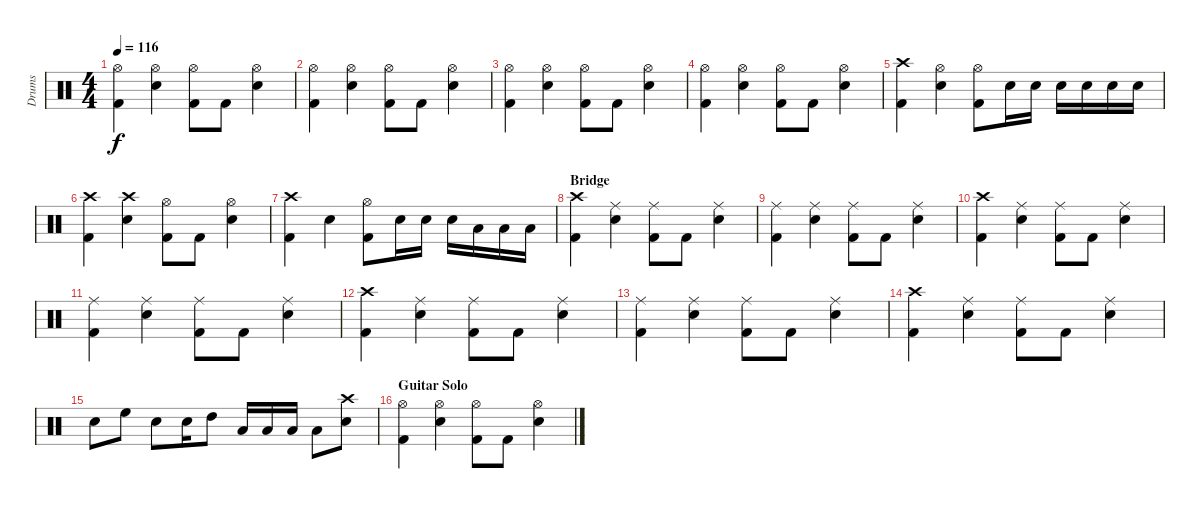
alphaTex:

\track ("Drums" "Drums") {instrument percussion}
\staff {score}
\articulation defaults
\ts (4 4)
\tempo 116
\clef neutral
\ks c
("Hi-Hat (open)" "Kick (hit) 2").4{dy f} ("Hi-Hat (open)" "Electric Snare (hit)").4 ("Hi-Hat (open)" "Kick (hit) 2").8 "Kick (hit) 2".8 ("Hi-Hat (open)" "Electric Snare (hit)").4 |
("Hi-Hat (open)" "Kick (hit) 2").4 ("Hi-Hat (open)" "Electric Snare (hit)").4 ("Hi-Hat (open)" "Kick (hit) 2").8 "Kick (hit) 2".8 ("Hi-Hat (open)" "Electric Snare (hit)").4 |
("Hi-Hat (open)" "Kick (hit) 2").4 ("Hi-Hat (open)" "Electric Snare (hit)").4 ("Hi-Hat (open)" "Kick (hit) 2").8 "Kick (hit) 2".8 ("Hi-Hat (open)" "Electric Snare (hit)").4 |
("Hi-Hat (open)" "Kick (hit) 2").4 ("Hi-Hat (open)" "Electric Snare (hit)").4 ("Hi-Hat (open)" "Kick (hit) 2").8 "Kick (hit) 2".8 ("Hi-Hat (open)" "Electric Snare (hit)").4 |
("Crash high (hit)" "Kick (hit) 2").4 ("Hi-Hat (open)" "Electric Snare (hit)").4 ("Hi-Hat (open)" "Kick (hit) 2").8 "Electric Snare (hit)".16 "Electric Snare (hit)".16 "Electric Snare (hit)".16 "Electric Snare (hit)".16 "Electric Snare (hit)".16 "Electric Snare (hit)".16 |
("Crash high (hit)" "Kick (hit) 2").4 ("Crash high (hit)" "Electric Snare (hit)").4 ("Hi-Hat (open)" "Kick (hit) 2").8 "Kick (hit) 2".8 ("Hi-Hat (open)" "Electric Snare (hit)").4 |
("Crash high (hit)" "Kick (hit) 2").4 "Electric Snare (hit)".4 ("Hi-Hat (open)" "Kick (hit) 2").8 "Electric Snare (hit)".16 "Electric Snare (hit)".16 "Electric Snare (hit)".16 "Low Tom (hit)".16 "Low Floor Tom (hit)".16 "Low Floor Tom (hit)".16 |
\section ("" "Bridge")
("Crash high (hit)" "Kick (hit) 2").4 ("Ride (middle)" "Electric Snare (hit)").4 ("Ride (middle)" "Kick (hit) 2").8 "Kick (hit) 2".8 ("Ride (middle)" "Electric Snare (hit)").4 |
("Ride (middle)" "Kick (hit) 2").4 ("Ride (middle)" "Electric Snare (hit)").4 ("Ride (middle)" "Kick (hit) 2").8 "Kick (hit) 2".8 ("Ride (middle)" "Electric Snare (hit)").4 |
("Crash high (hit)" "Kick (hit) 2").4 ("Ride (middle)" "Electric Snare (hit)").4 ("Ride (middle)" "Kick (hit) 2").8 "Kick (hit) 2".8 ("Ride (middle)" "Electric Snare (hit)").4 |
("Ride (middle)" "Kick (hit) 2").4 ("Ride (middle)" "Electric Snare (hit)").4 ("Ride (middle)" "Kick (hit) 2").8 "Kick (hit) 2".8 ("Ride (middle)" "Electric Snare (hit)").4 |
("Crash high (hit)" "Kick (hit) 2").4 ("Ride (middle)" "Electric Snare (hit)").4 ("Ride (middle)" "Kick (hit) 2").8 "Kick (hit) 2".8 ("Ride (middle)" "Electric Snare (hit)").4 |
("Ride (middle)" "Kick (hit) 2").4 ("Ride (middle)" "Electric Snare (hit)").4 ("Ride (middle)" "Kick (hit) 2").8 "Kick (hit) 2".8 ("Ride (middle)" "Electric Snare (hit)").4 |
("Crash high (hit)" "Kick (hit) 2").4 ("Ride (middle)" "Electric Snare (hit)").4 ("Ride (middle)" "Kick (hit) 2").8 "Kick (hit) 2".8 ("Ride (middle)" "Electric Snare (hit)").4 |
"Electric Snare (hit)".8 "High Floor Tom (hit)".8 "Electric Snare (hit)".8 "Electric Snare (hit)".16 "High Tom (hit)".8 "Low Tom (hit)".16 "Low Tom (hit)".16 "Low Floor Tom (hit)".16 "Low Floor Tom (hit)".8 ("Crash high (hit)" "Electric Snare (hit)").8 |
\section ("" "Guitar Solo")
("Hi-Hat (open)" "Kick (hit) 2").4 ("Hi-Hat (open)" "Electric Snare (hit)").4 ("Hi-Hat (open)" "Kick (hit) 2").8 "Kick (hit) 2".8 ("Hi-Hat (open)" "Electric Snare (hit)").4
